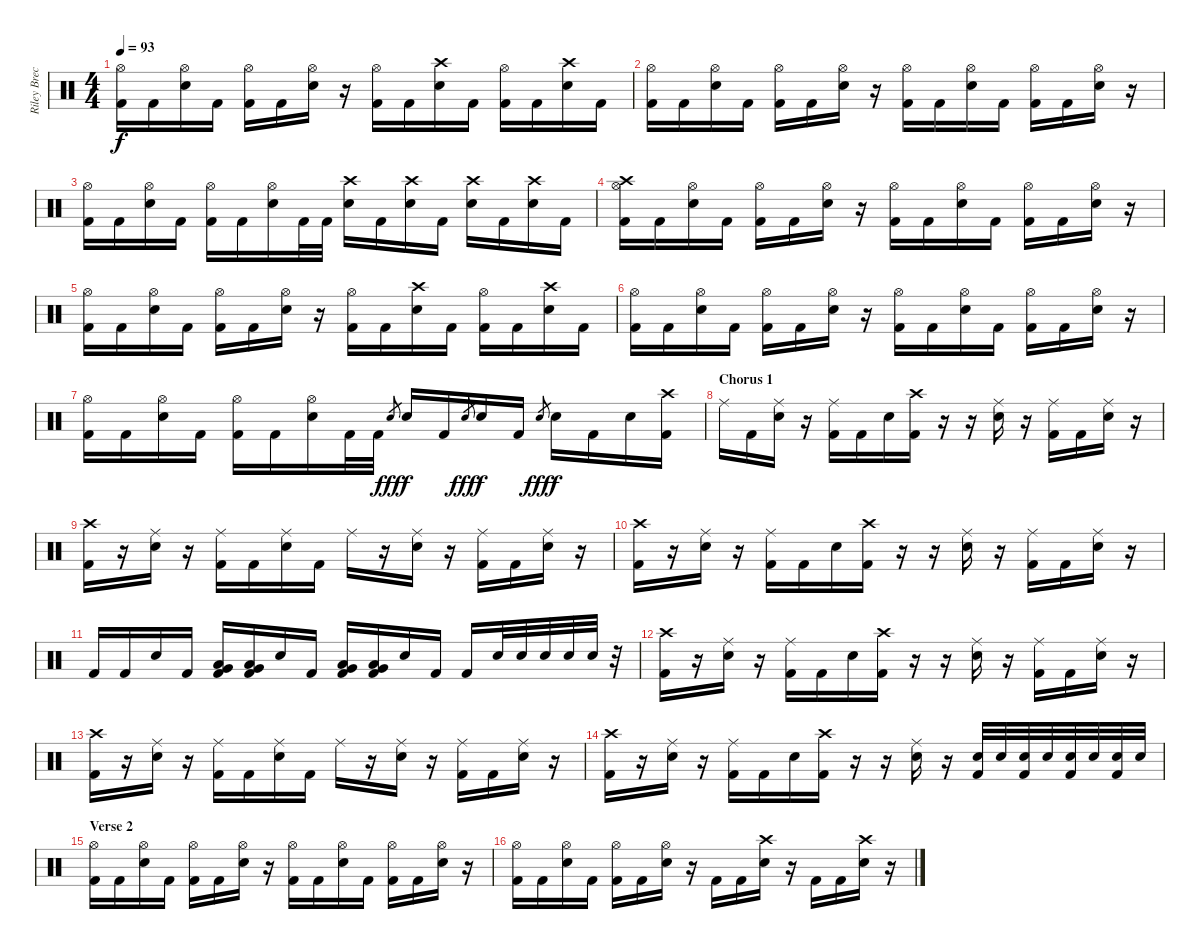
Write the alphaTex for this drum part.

\track ("Riley Breckenridge" "Riley Brec") {instrument percussion}
\staff {score}
\articulation defaults
\ts (4 4)
\tempo 93
\clef neutral
\ks c
("Kick (hit) 2" "Hi-Hat (open)").16{dy f} "Kick (hit) 2".16 ("Electric Snare (hit)" "Hi-Hat (open)").16 "Kick (hit) 2".16 ("Kick (hit) 2" "Hi-Hat (open)").16 "Kick (hit) 2".16 ("Electric Snare (hit)" "Hi-Hat (open)").16 r.16 ("Kick (hit) 2" "Hi-Hat (open)").16 "Kick (hit) 2".16 ("Electric Snare (hit)" "Crash high (hit)").16 "Kick (hit) 2".16 ("Kick (hit) 2" "Hi-Hat (open)").16 "Kick (hit) 2".16 ("Electric Snare (hit)" "Crash high (hit)").16 "Kick (hit) 2".16 |
("Kick (hit) 2" "Hi-Hat (open)").16 "Kick (hit) 2".16 ("Electric Snare (hit)" "Hi-Hat (open)").16 "Kick (hit) 2".16 ("Kick (hit) 2" "Hi-Hat (open)").16 "Kick (hit) 2".16 ("Electric Snare (hit)" "Hi-Hat (open)").16 r.16 ("Kick (hit) 2" "Hi-Hat (open)").16 "Kick (hit) 2".16 ("Electric Snare (hit)" "Hi-Hat (open)").16 "Kick (hit) 2".16 ("Kick (hit) 2" "Hi-Hat (open)").16 "Kick (hit) 2".16 ("Electric Snare (hit)" "Hi-Hat (open)").16 r.16 |
("Kick (hit) 2" "Hi-Hat (open)").16 "Kick (hit) 2".16 ("Electric Snare (hit)" "Hi-Hat (open)").16 "Kick (hit) 2".16 ("Kick (hit) 2" "Hi-Hat (open)").16 "Kick (hit) 2".16 ("Electric Snare (hit)" "Hi-Hat (open)").16 "Kick (hit) 2".32 "Kick (hit) 2".32 ("Electric Snare (hit)" "Crash high (hit)").16 "Kick (hit) 2".16 ("Electric Snare (hit)" "Crash high (hit)").16 "Kick (hit) 2".16 ("Electric Snare (hit)" "Crash high (hit)").16 "Kick (hit) 2".16 ("Electric Snare (hit)" "Crash high (hit)").16 "Kick (hit) 2".16 |
("Kick (hit) 2" "Crash high (hit)" "Hi-Hat (open)").16 "Kick (hit) 2".16 ("Electric Snare (hit)" "Hi-Hat (open)").16 "Kick (hit) 2".16 ("Kick (hit) 2" "Hi-Hat (open)").16 "Kick (hit) 2".16 ("Electric Snare (hit)" "Hi-Hat (open)").16 r.16 ("Kick (hit) 2" "Hi-Hat (open)").16 "Kick (hit) 2".16 ("Electric Snare (hit)" "Hi-Hat (open)").16 "Kick (hit) 2".16 ("Kick (hit) 2" "Hi-Hat (open)").16 "Kick (hit) 2".16 ("Electric Snare (hit)" "Hi-Hat (open)").16 r.16 |
("Kick (hit) 2" "Hi-Hat (open)").16 "Kick (hit) 2".16 ("Electric Snare (hit)" "Hi-Hat (open)").16 "Kick (hit) 2".16 ("Kick (hit) 2" "Hi-Hat (open)").16 "Kick (hit) 2".16 ("Electric Snare (hit)" "Hi-Hat (open)").16 r.16 ("Kick (hit) 2" "Hi-Hat (open)").16 "Kick (hit) 2".16 ("Electric Snare (hit)" "Crash high (hit)").16 "Kick (hit) 2".16 ("Kick (hit) 2" "Hi-Hat (open)").16 "Kick (hit) 2".16 ("Electric Snare (hit)" "Crash high (hit)").16 "Kick (hit) 2".16 |
("Kick (hit) 2" "Hi-Hat (open)").16 "Kick (hit) 2".16 ("Electric Snare (hit)" "Hi-Hat (open)").16 "Kick (hit) 2".16 ("Kick (hit) 2" "Hi-Hat (open)").16 "Kick (hit) 2".16 ("Electric Snare (hit)" "Hi-Hat (open)").16 r.16 ("Kick (hit) 2" "Hi-Hat (open)").16 "Kick (hit) 2".16 ("Electric Snare (hit)" "Hi-Hat (open)").16 "Kick (hit) 2".16 ("Kick (hit) 2" "Hi-Hat (open)").16 "Kick (hit) 2".16 ("Electric Snare (hit)" "Hi-Hat (open)").16 r.16 |
("Kick (hit) 2" "Hi-Hat (open)").16 "Kick (hit) 2".16 ("Electric Snare (hit)" "Hi-Hat (open)").16 "Kick (hit) 2".16 ("Kick (hit) 2" "Hi-Hat (open)").16 "Kick (hit) 2".16 ("Electric Snare (hit)" "Hi-Hat (open)").16 "Kick (hit) 2".32 "Kick (hit) 2".32 "Electric Snare (hit)".8{gr dy fff} "Electric Snare (hit)".16{dy f} "Kick (hit) 2".16 "Electric Snare (hit)".8{gr dy fff} "Electric Snare (hit)".16{dy f} "Kick (hit) 2".16 "Electric Snare (hit)".8{gr dy fff} "Electric Snare (hit)".16{dy f} "Kick (hit) 2".16 "Electric Snare (hit)".16 ("Kick (hit) 2" "Crash high (hit)").16 |
\section ("" "Chorus 1")
"Ride (middle)".16 "Kick (hit) 2".16 ("Electric Snare (hit)" "Ride (middle)").16 r.16 ("Kick (hit) 2" "Ride (middle)").16 "Kick (hit) 2".16 "Electric Snare (hit)".16 ("Kick (hit) 2" "Crash high (hit)").16 r.16 r.16 ("Electric Snare (hit)" "Ride (middle)").16 r.16 ("Kick (hit) 2" "Ride (middle)").16 "Kick (hit) 2".16 ("Electric Snare (hit)" "Ride (middle)").16 r.16 |
("Kick (hit) 2" "Crash high (hit)").16 r.16 ("Electric Snare (hit)" "Ride (middle)").16 r.16 ("Kick (hit) 2" "Ride (middle)").16 "Kick (hit) 2".16 ("Electric Snare (hit)" "Ride (middle)").16 "Kick (hit) 2".16 "Ride (middle)".16 r.16 ("Electric Snare (hit)" "Ride (middle)").16 r.16 ("Kick (hit) 2" "Ride (middle)").16 "Kick (hit) 2".16 ("Electric Snare (hit)" "Ride (middle)").16 r.16 |
("Kick (hit) 2" "Crash high (hit)").16 r.16 ("Electric Snare (hit)" "Ride (middle)").16 r.16 ("Kick (hit) 2" "Ride (middle)").16 "Kick (hit) 2".16 "Electric Snare (hit)".16 ("Kick (hit) 2" "Crash high (hit)").16 r.16 r.16 ("Electric Snare (hit)" "Ride (middle)").16 r.16 ("Kick (hit) 2" "Ride (middle)").16 "Kick (hit) 2".16 ("Electric Snare (hit)" "Ride (middle)").16 r.16 |
"Kick (hit) 2".16 "Kick (hit) 2".16 "Electric Snare (hit)".16 "Kick (hit) 2".16 ("Kick (hit) 2" "Very Low Tom (hit)" "Low Floor Tom (hit)").16 ("Kick (hit) 2" "Very Low Tom (hit)" "Low Floor Tom (hit)").16 "Electric Snare (hit)".16 "Kick (hit) 2".16 ("Kick (hit) 2" "Very Low Tom (hit)" "Low Floor Tom (hit)").16 ("Kick (hit) 2" "Very Low Tom (hit)" "Low Floor Tom (hit)").16 "Electric Snare (hit)".16 "Kick (hit) 2".16 "Kick (hit) 2".16 "Electric Snare (hit)".32 "Electric Snare (hit)".32 "Electric Snare (hit)".32 "Electric Snare (hit)".32 "Electric Snare (hit)".32 r.32 |
("Kick (hit) 2" "Crash high (hit)").16 r.16 ("Electric Snare (hit)" "Ride (middle)").16 r.16 ("Kick (hit) 2" "Ride (middle)").16 "Kick (hit) 2".16 "Electric Snare (hit)".16 ("Kick (hit) 2" "Crash high (hit)").16 r.16 r.16 ("Electric Snare (hit)" "Ride (middle)").16 r.16 ("Kick (hit) 2" "Ride (middle)").16 "Kick (hit) 2".16 ("Electric Snare (hit)" "Ride (middle)").16 r.16 |
("Kick (hit) 2" "Crash high (hit)").16 r.16 ("Electric Snare (hit)" "Ride (middle)").16 r.16 ("Kick (hit) 2" "Ride (middle)").16 "Kick (hit) 2".16 ("Electric Snare (hit)" "Ride (middle)").16 "Kick (hit) 2".16 "Ride (middle)".16 r.16 ("Electric Snare (hit)" "Ride (middle)").16 r.16 ("Kick (hit) 2" "Ride (middle)").16 "Kick (hit) 2".16 ("Electric Snare (hit)" "Ride (middle)").16 r.16 |
("Kick (hit) 2" "Crash high (hit)").16 r.16 ("Electric Snare (hit)" "Ride (middle)").16 r.16 ("Kick (hit) 2" "Ride (middle)").16 "Kick (hit) 2".16 "Electric Snare (hit)".16 ("Kick (hit) 2" "Crash high (hit)").16 r.16 r.16 ("Electric Snare (hit)" "Ride (middle)").16 r.16 ("Kick (hit) 2" "Electric Snare (hit)").32 "Electric Snare (hit)".32 ("Kick (hit) 2" "Electric Snare (hit)").32 "Electric Snare (hit)".32 ("Kick (hit) 2" "Electric Snare (hit)").32 "Electric Snare (hit)".32 ("Kick (hit) 2" "Electric Snare (hit)").32 "Electric Snare (hit)".32 |
\section ("" "Verse 2")
("Kick (hit) 2" "Hi-Hat (open)").16 "Kick (hit) 2".16 ("Electric Snare (hit)" "Hi-Hat (open)").16 "Kick (hit) 2".16 ("Kick (hit) 2" "Hi-Hat (open)").16 "Kick (hit) 2".16 ("Electric Snare (hit)" "Hi-Hat (open)").16 r.16 ("Kick (hit) 2" "Hi-Hat (open)").16 "Kick (hit) 2".16 ("Electric Snare (hit)" "Hi-Hat (open)").16 "Kick (hit) 2".16 ("Kick (hit) 2" "Hi-Hat (open)").16 "Kick (hit) 2".16 ("Electric Snare (hit)" "Hi-Hat (open)").16 r.16 |
("Kick (hit) 2" "Hi-Hat (open)").16 "Kick (hit) 2".16 ("Electric Snare (hit)" "Hi-Hat (open)").16 "Kick (hit) 2".16 ("Kick (hit) 2" "Hi-Hat (open)").16 "Kick (hit) 2".16 ("Electric Snare (hit)" "Hi-Hat (open)").16 r.16 "Kick (hit) 2".16 "Kick (hit) 2".16 ("Electric Snare (hit)" "Crash high (hit)").16 r.16 "Kick (hit) 2".16 "Kick (hit) 2".16 ("Electric Snare (hit)" "Crash high (hit)").16 r.16
